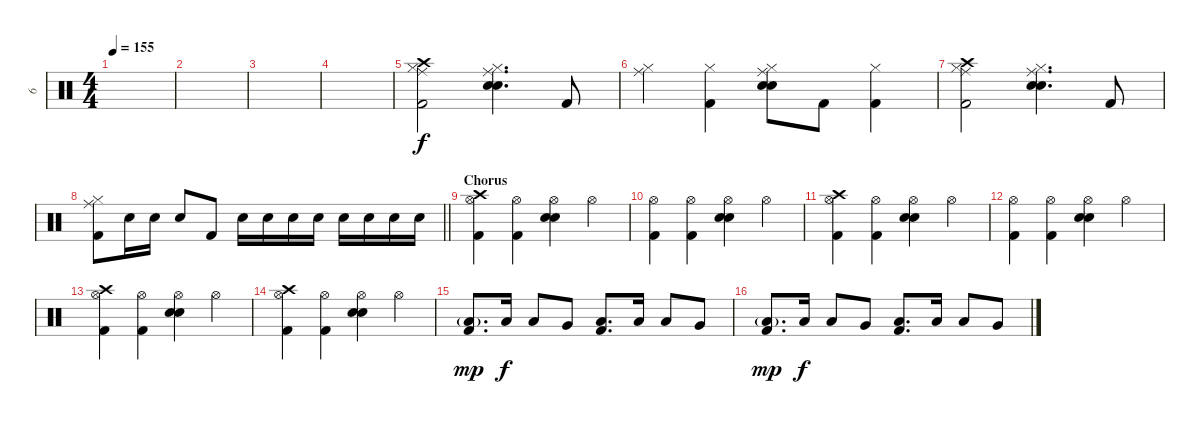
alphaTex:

\track ("6" "6") {instrument percussion}
\staff {score}
\articulation defaults
\ts (4 4)
\tempo 155
\clef neutral
\ks c
|
|
|
|
("Kick (hit) 2" "Ride (middle)" "Crash high (hit)" "Hi-Hat (closed)").2 ("Snare (hit) 2" "Electric Snare (hit)" "Ride (middle)" "Hi-Hat (closed)").4{d} "Kick (hit) 2".8 |
("Ride (middle)" "Hi-Hat (closed)").4 ("Kick (hit) 2" "Hi-Hat (closed)").4 ("Snare (hit) 2" "Electric Snare (hit)" "Ride (middle)" "Hi-Hat (closed)").8 "Kick (hit) 2".8 ("Kick (hit) 2" "Hi-Hat (closed)").4 |
("Kick (hit) 2" "Ride (middle)" "Crash high (hit)" "Hi-Hat (closed)").2 ("Snare (hit) 2" "Electric Snare (hit)" "Ride (middle)" "Hi-Hat (closed)").4{d} "Kick (hit) 2".8 |
\barLineRight lightlight
("Kick (hit) 2" "Ride (middle)" "Hi-Hat (closed)").8 "Snare (hit) 2".16 "Snare (hit) 2".16 "Snare (hit) 2".8 "Kick (hit) 2".8 "Snare (hit) 2".16 "Snare (hit) 2".16 "Snare (hit) 2".16 "Snare (hit) 2".16 "Snare (hit) 2".16 "Snare (hit) 2".16 "Snare (hit) 2".16 "Snare (hit) 2".16 |
\section ("" "Chorus")
("Kick (hit) 2" "Crash high (hit)" "Hi-Hat (open)").4 ("Kick (hit) 2" "Hi-Hat (open)").4 ("Snare (hit) 2" "Electric Snare (hit)" "Hi-Hat (open)").4 "Hi-Hat (open)".4 |
("Kick (hit) 2" "Hi-Hat (open)").4 ("Kick (hit) 2" "Hi-Hat (open)").4 ("Snare (hit) 2" "Electric Snare (hit)" "Hi-Hat (open)").4 "Hi-Hat (open)".4 |
("Kick (hit) 2" "Crash high (hit)" "Hi-Hat (open)").4 ("Kick (hit) 2" "Hi-Hat (open)").4 ("Snare (hit) 2" "Electric Snare (hit)" "Hi-Hat (open)").4 "Hi-Hat (open)".4 |
("Kick (hit) 2" "Hi-Hat (open)").4 ("Kick (hit) 2" "Hi-Hat (open)").4 ("Snare (hit) 2" "Electric Snare (hit)" "Hi-Hat (open)").4 "Hi-Hat (open)".4 |
("Kick (hit) 2" "Crash high (hit)" "Hi-Hat (open)").4 ("Kick (hit) 2" "Hi-Hat (open)").4 ("Snare (hit) 2" "Electric Snare (hit)" "Hi-Hat (open)").4 "Hi-Hat (open)".4 |
("Kick (hit) 2" "Crash high (hit)" "Hi-Hat (open)").4 ("Kick (hit) 2" "Hi-Hat (open)").4 ("Snare (hit) 2" "Electric Snare (hit)" "Hi-Hat (open)").4 "Hi-Hat (open)".4 |
("Low Tom (hit)"{g} "Kick (hit) 2").8{d dy mp} "Low Tom (hit)".16{dy f} "Low Tom (hit)".8 "Very Low Tom (hit)".8 ("Low Tom (hit)" "Kick (hit) 2").8{d} "Low Tom (hit)".16 "Low Tom (hit)".8 "Very Low Tom (hit)".8 |
("Low Tom (hit)"{g} "Kick (hit) 2").8{d dy mp} "Low Tom (hit)".16{dy f} "Low Tom (hit)".8 "Very Low Tom (hit)".8 ("Low Tom (hit)" "Kick (hit) 2").8{d} "Low Tom (hit)".16 "Low Tom (hit)".8 "Very Low Tom (hit)".8
